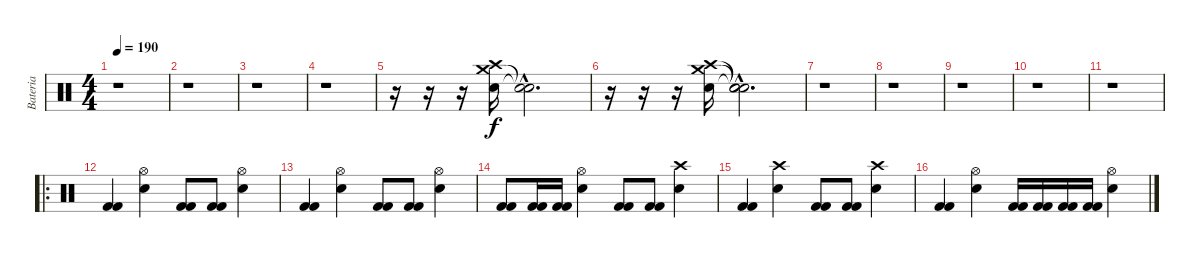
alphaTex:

\track ("Bateria" "Bateria") {instrument percussion}
\staff {score}
\articulation defaults
\ts (4 4)
\tempo 190
\clef neutral
\ks c
r.1{dy f} |
r.1 |
r.1 |
r.1 |
r.16 r.16 r.16 ("Snare (hit) 2" "Crash medium (hit)" "Crash high (hit)").16 ("Snare (hit)"{hac t} "Snare (hit)"{hac t}).2{d} |
r.16 r.16 r.16 ("Snare (hit) 2" "Crash medium (hit)" "Crash high (hit)").16 ("Snare (hit)"{hac t} "Snare (hit)"{hac t} "Snare (hit)"{hac t}).2{d} |
r.1 |
r.1 |
r.1 |
r.1 |
r.1 |
\ro
("Kick (hit) 2" "Kick (hit) 2").4 ("Hi-Hat (open)" "Snare (hit) 2").4 ("Kick (hit) 2" "Kick (hit) 2").8 ("Kick (hit) 2" "Kick (hit) 2").8 ("Hi-Hat (open)" "Snare (hit) 2").4 |
("Kick (hit) 2" "Kick (hit) 2").4 ("Hi-Hat (open)" "Snare (hit) 2").4 ("Kick (hit) 2" "Kick (hit) 2").8 ("Kick (hit) 2" "Kick (hit) 2").8 ("Hi-Hat (open)" "Snare (hit) 2").4 |
("Kick (hit) 2" "Kick (hit) 2").8 ("Kick (hit) 2" "Kick (hit) 2").16 ("Kick (hit) 2" "Kick (hit) 2").16 ("Hi-Hat (open)" "Snare (hit) 2").4 ("Kick (hit) 2" "Kick (hit) 2").8 ("Kick (hit) 2" "Kick (hit) 2").8 ("Crash high (hit)" "Snare (hit) 2").4 |
("Kick (hit) 2" "Kick (hit) 2").4 ("Crash high (hit)" "Snare (hit) 2").4 ("Kick (hit) 2" "Kick (hit) 2").8 ("Kick (hit) 2" "Kick (hit) 2").8 ("Crash high (hit)" "Snare (hit) 2").4 |
("Kick (hit) 2" "Kick (hit) 2").4 ("Hi-Hat (open)" "Snare (hit) 2").4 ("Kick (hit) 2" "Kick (hit) 2").16 ("Kick (hit) 2" "Kick (hit) 2").16 ("Kick (hit) 2" "Kick (hit) 2").16 ("Kick (hit) 2" "Kick (hit) 2").16 ("Hi-Hat (open)" "Snare (hit) 2").4
